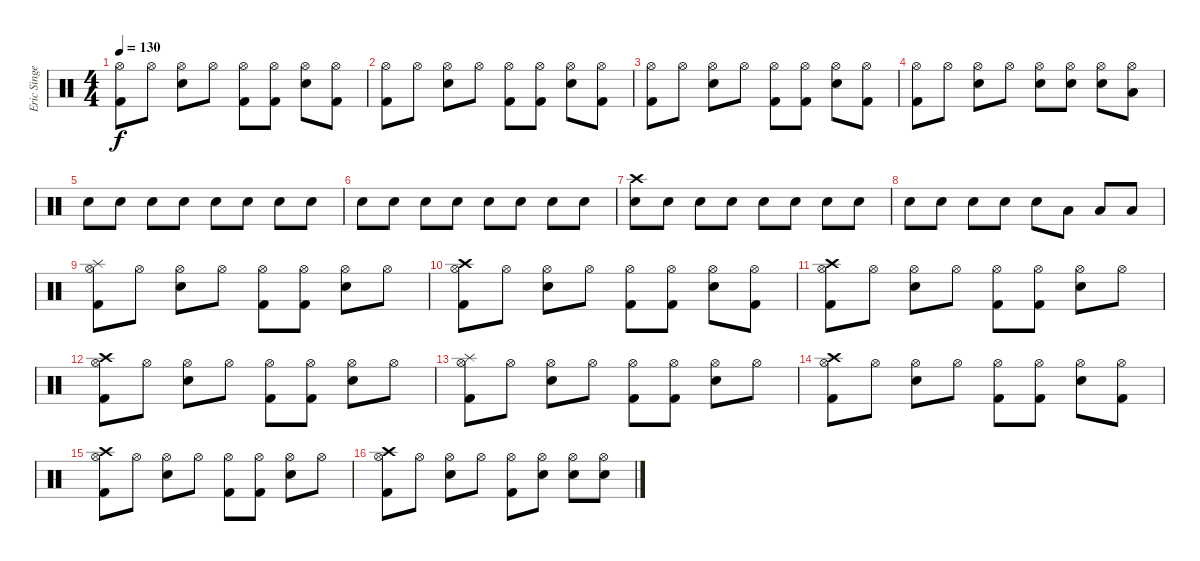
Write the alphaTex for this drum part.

\track ("Eric Singer" "Eric Singe") {instrument percussion}
\staff {score}
\articulation defaults
\ts (4 4)
\tempo 130
\clef neutral
\ks c
("Kick (hit) 2" "Hi-Hat (open)").8{dy f} "Hi-Hat (open)".8 ("Electric Snare (hit)" "Hi-Hat (open)").8 "Hi-Hat (open)".8 ("Kick (hit) 2" "Hi-Hat (open)").8 ("Kick (hit) 2" "Hi-Hat (open)").8 ("Electric Snare (hit)" "Hi-Hat (open)").8 ("Kick (hit) 2" "Hi-Hat (open)").8 |
("Kick (hit) 2" "Hi-Hat (open)").8 "Hi-Hat (open)".8 ("Electric Snare (hit)" "Hi-Hat (open)").8 "Hi-Hat (open)".8 ("Kick (hit) 2" "Hi-Hat (open)").8 ("Kick (hit) 2" "Hi-Hat (open)").8 ("Electric Snare (hit)" "Hi-Hat (open)").8 ("Kick (hit) 2" "Hi-Hat (open)").8 |
("Kick (hit) 2" "Hi-Hat (open)").8 "Hi-Hat (open)".8 ("Electric Snare (hit)" "Hi-Hat (open)").8 "Hi-Hat (open)".8 ("Kick (hit) 2" "Hi-Hat (open)").8 ("Kick (hit) 2" "Hi-Hat (open)").8 ("Electric Snare (hit)" "Hi-Hat (open)").8 ("Kick (hit) 2" "Hi-Hat (open)").8 |
("Kick (hit) 2" "Hi-Hat (open)").8 "Hi-Hat (open)".8 ("Electric Snare (hit)" "Hi-Hat (open)").8 "Hi-Hat (open)".8 ("Electric Snare (hit)" "Hi-Hat (open)").8 ("Electric Snare (hit)" "Hi-Hat (open)").8 ("Electric Snare (hit)" "Hi-Hat (open)").8 ("Low Floor Tom (hit)" "Hi-Hat (open)").8 |
"Electric Snare (hit)".8 "Electric Snare (hit)".8 "Electric Snare (hit)".8 "Electric Snare (hit)".8 "Electric Snare (hit)".8 "Electric Snare (hit)".8 "Electric Snare (hit)".8 "Electric Snare (hit)".8 |
"Electric Snare (hit)".8 "Electric Snare (hit)".8 "Electric Snare (hit)".8 "Electric Snare (hit)".8 "Electric Snare (hit)".8 "Electric Snare (hit)".8 "Electric Snare (hit)".8 "Electric Snare (hit)".8 |
("Electric Snare (hit)" "Crash high (hit)").8{volume 6} "Electric Snare (hit)".8{volume 8} "Electric Snare (hit)".8{volume 11} "Electric Snare (hit)".8{volume 14} "Electric Snare (hit)".8{volume 16} "Electric Snare (hit)".8 "Electric Snare (hit)".8 "Electric Snare (hit)".8 |
"Electric Snare (hit)".8 "Electric Snare (hit)".8 "Electric Snare (hit)".8 "Electric Snare (hit)".8 "Electric Snare (hit)".8 "Low Floor Tom (hit)".8 "Low Floor Tom (hit)".8 "Low Floor Tom (hit)".8 |
("Splash (hit)" "Kick (hit) 2" "Hi-Hat (open)").8 "Hi-Hat (open)".8 ("Electric Snare (hit)" "Hi-Hat (open)").8 "Hi-Hat (open)".8 ("Kick (hit) 2" "Hi-Hat (open)").8 ("Kick (hit) 2" "Hi-Hat (open)").8 ("Electric Snare (hit)" "Hi-Hat (open)").8 "Hi-Hat (open)".8 |
("Crash high (hit)" "Kick (hit) 2" "Hi-Hat (open)").8 "Hi-Hat (open)".8 ("Electric Snare (hit)" "Hi-Hat (open)").8 "Hi-Hat (open)".8 ("Kick (hit) 2" "Hi-Hat (open)").8 ("Kick (hit) 2" "Hi-Hat (open)").8 ("Electric Snare (hit)" "Hi-Hat (open)").8 ("Kick (hit) 2" "Hi-Hat (open)").8 |
("Crash high (hit)" "Kick (hit) 2" "Hi-Hat (open)").8 "Hi-Hat (open)".8 ("Electric Snare (hit)" "Hi-Hat (open)").8 "Hi-Hat (open)".8 ("Kick (hit) 2" "Hi-Hat (open)").8 ("Kick (hit) 2" "Hi-Hat (open)").8 ("Electric Snare (hit)" "Hi-Hat (open)").8 "Hi-Hat (open)".8 |
("Crash high (hit)" "Kick (hit) 2" "Hi-Hat (open)").8 "Hi-Hat (open)".8 ("Electric Snare (hit)" "Hi-Hat (open)").8 "Hi-Hat (open)".8 ("Kick (hit) 2" "Hi-Hat (open)").8 ("Kick (hit) 2" "Hi-Hat (open)").8 ("Electric Snare (hit)" "Hi-Hat (open)").8 "Hi-Hat (open)".8 |
("Splash (hit)" "Kick (hit) 2" "Hi-Hat (open)").8 "Hi-Hat (open)".8 ("Electric Snare (hit)" "Hi-Hat (open)").8 "Hi-Hat (open)".8 ("Kick (hit) 2" "Hi-Hat (open)").8 ("Kick (hit) 2" "Hi-Hat (open)").8 ("Electric Snare (hit)" "Hi-Hat (open)").8 "Hi-Hat (open)".8 |
("Crash high (hit)" "Kick (hit) 2" "Hi-Hat (open)").8 "Hi-Hat (open)".8 ("Electric Snare (hit)" "Hi-Hat (open)").8 "Hi-Hat (open)".8 ("Kick (hit) 2" "Hi-Hat (open)").8 ("Kick (hit) 2" "Hi-Hat (open)").8 ("Electric Snare (hit)" "Hi-Hat (open)").8 ("Kick (hit) 2" "Hi-Hat (open)").8 |
("Crash high (hit)" "Kick (hit) 2" "Hi-Hat (open)").8 "Hi-Hat (open)".8 ("Electric Snare (hit)" "Hi-Hat (open)").8 "Hi-Hat (open)".8 ("Kick (hit) 2" "Hi-Hat (open)").8 ("Kick (hit) 2" "Hi-Hat (open)").8 ("Electric Snare (hit)" "Hi-Hat (open)").8 "Hi-Hat (open)".8 |
("Crash high (hit)" "Kick (hit) 2" "Hi-Hat (open)").8 "Hi-Hat (open)".8 ("Electric Snare (hit)" "Hi-Hat (open)").8 "Hi-Hat (open)".8 ("Kick (hit) 2" "Hi-Hat (open)").8 ("Electric Snare (hit)" "Hi-Hat (open)").8 ("Electric Snare (hit)" "Hi-Hat (open)").8 ("Electric Snare (hit)" "Hi-Hat (open)").8
